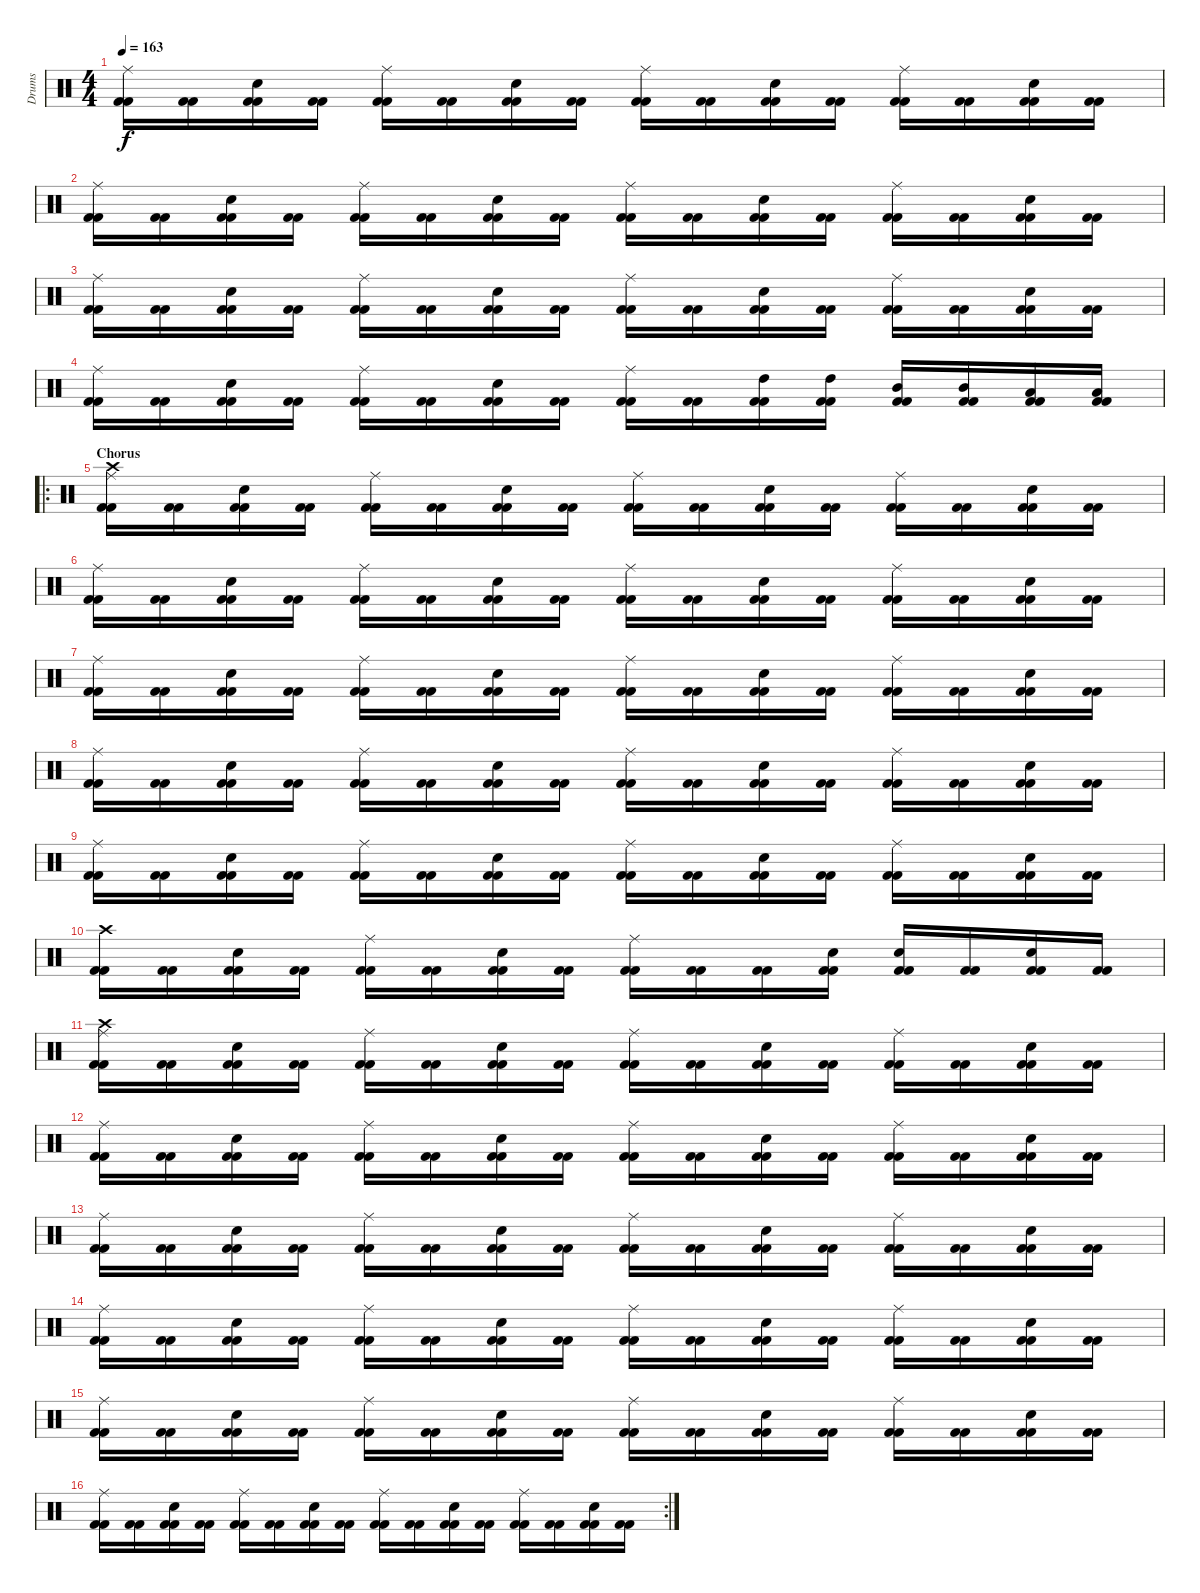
\track ("Drums" "Drums") {instrument percussion}
\staff {score}
\articulation defaults
\ts (4 4)
\tempo 163
\clef neutral
\ks c
("Kick (hit) 2" "Kick (hit) 2" "Ride (middle)").16{dy f} ("Kick (hit) 2" "Kick (hit) 2").16 ("Kick (hit) 2" "Kick (hit) 2" "Snare (hit) 2").16 ("Kick (hit) 2" "Kick (hit) 2").16 ("Kick (hit) 2" "Kick (hit) 2" "Ride (middle)").16 ("Kick (hit) 2" "Kick (hit) 2").16 ("Kick (hit) 2" "Kick (hit) 2" "Snare (hit) 2").16 ("Kick (hit) 2" "Kick (hit) 2").16 ("Kick (hit) 2" "Kick (hit) 2" "Ride (middle)").16 ("Kick (hit) 2" "Kick (hit) 2").16 ("Kick (hit) 2" "Kick (hit) 2" "Snare (hit) 2").16 ("Kick (hit) 2" "Kick (hit) 2").16 ("Kick (hit) 2" "Kick (hit) 2" "Ride (middle)").16 ("Kick (hit) 2" "Kick (hit) 2").16 ("Kick (hit) 2" "Kick (hit) 2" "Snare (hit) 2").16 ("Kick (hit) 2" "Kick (hit) 2").16 |
("Kick (hit) 2" "Kick (hit) 2" "Ride (middle)").16 ("Kick (hit) 2" "Kick (hit) 2").16 ("Kick (hit) 2" "Kick (hit) 2" "Snare (hit) 2").16 ("Kick (hit) 2" "Kick (hit) 2").16 ("Kick (hit) 2" "Kick (hit) 2" "Ride (middle)").16 ("Kick (hit) 2" "Kick (hit) 2").16 ("Kick (hit) 2" "Kick (hit) 2" "Snare (hit) 2").16 ("Kick (hit) 2" "Kick (hit) 2").16 ("Kick (hit) 2" "Kick (hit) 2" "Ride (middle)").16 ("Kick (hit) 2" "Kick (hit) 2").16 ("Kick (hit) 2" "Kick (hit) 2" "Snare (hit) 2").16 ("Kick (hit) 2" "Kick (hit) 2").16 ("Kick (hit) 2" "Kick (hit) 2" "Ride (middle)").16 ("Kick (hit) 2" "Kick (hit) 2").16 ("Kick (hit) 2" "Kick (hit) 2" "Snare (hit) 2").16 ("Kick (hit) 2" "Kick (hit) 2").16 |
("Kick (hit) 2" "Kick (hit) 2" "Ride (middle)").16 ("Kick (hit) 2" "Kick (hit) 2").16 ("Kick (hit) 2" "Kick (hit) 2" "Snare (hit) 2").16 ("Kick (hit) 2" "Kick (hit) 2").16 ("Kick (hit) 2" "Kick (hit) 2" "Ride (middle)").16 ("Kick (hit) 2" "Kick (hit) 2").16 ("Kick (hit) 2" "Kick (hit) 2" "Snare (hit) 2").16 ("Kick (hit) 2" "Kick (hit) 2").16 ("Kick (hit) 2" "Kick (hit) 2" "Ride (middle)").16 ("Kick (hit) 2" "Kick (hit) 2").16 ("Kick (hit) 2" "Kick (hit) 2" "Snare (hit) 2").16 ("Kick (hit) 2" "Kick (hit) 2").16 ("Kick (hit) 2" "Kick (hit) 2" "Ride (middle)").16 ("Kick (hit) 2" "Kick (hit) 2").16 ("Kick (hit) 2" "Kick (hit) 2" "Snare (hit) 2").16 ("Kick (hit) 2" "Kick (hit) 2").16 |
("Kick (hit) 2" "Kick (hit) 2" "Ride (middle)").16 ("Kick (hit) 2" "Kick (hit) 2").16 ("Kick (hit) 2" "Kick (hit) 2" "Snare (hit) 2").16 ("Kick (hit) 2" "Kick (hit) 2").16 ("Kick (hit) 2" "Kick (hit) 2" "Ride (middle)").16 ("Kick (hit) 2" "Kick (hit) 2").16 ("Kick (hit) 2" "Kick (hit) 2" "Snare (hit) 2").16 ("Kick (hit) 2" "Kick (hit) 2").16 ("Kick (hit) 2" "Kick (hit) 2" "Ride (middle)").16 ("Kick (hit) 2" "Kick (hit) 2").16 ("Kick (hit) 2" "Kick (hit) 2" "High Tom (hit)").16 ("Kick (hit) 2" "Kick (hit) 2" "High Tom (hit)").16 ("Kick (hit) 2" "Kick (hit) 2" "Mid Tom (hit)").16 ("Kick (hit) 2" "Kick (hit) 2" "Mid Tom (hit)").16 ("Kick (hit) 2" "Kick (hit) 2" "Low Tom (hit)").16 ("Kick (hit) 2" "Kick (hit) 2" "Low Tom (hit)").16 |
\ro
\section ("" "Chorus")
("Kick (hit) 2" "Kick (hit) 2" "Ride (middle)" "Crash high (hit)").16 ("Kick (hit) 2" "Kick (hit) 2").16 ("Kick (hit) 2" "Kick (hit) 2" "Snare (hit) 2").16 ("Kick (hit) 2" "Kick (hit) 2").16 ("Kick (hit) 2" "Kick (hit) 2" "Ride (middle)").16 ("Kick (hit) 2" "Kick (hit) 2").16 ("Kick (hit) 2" "Kick (hit) 2" "Snare (hit) 2").16 ("Kick (hit) 2" "Kick (hit) 2").16 ("Kick (hit) 2" "Kick (hit) 2" "Ride (middle)").16 ("Kick (hit) 2" "Kick (hit) 2").16 ("Kick (hit) 2" "Kick (hit) 2" "Snare (hit) 2").16 ("Kick (hit) 2" "Kick (hit) 2").16 ("Kick (hit) 2" "Kick (hit) 2" "Ride (middle)").16 ("Kick (hit) 2" "Kick (hit) 2").16 ("Kick (hit) 2" "Kick (hit) 2" "Snare (hit) 2").16 ("Kick (hit) 2" "Kick (hit) 2").16 |
("Kick (hit) 2" "Kick (hit) 2" "Ride (middle)").16 ("Kick (hit) 2" "Kick (hit) 2").16 ("Kick (hit) 2" "Kick (hit) 2" "Snare (hit) 2").16 ("Kick (hit) 2" "Kick (hit) 2").16 ("Kick (hit) 2" "Kick (hit) 2" "Ride (middle)").16 ("Kick (hit) 2" "Kick (hit) 2").16 ("Kick (hit) 2" "Kick (hit) 2" "Snare (hit) 2").16 ("Kick (hit) 2" "Kick (hit) 2").16 ("Kick (hit) 2" "Kick (hit) 2" "Ride (middle)").16 ("Kick (hit) 2" "Kick (hit) 2").16 ("Kick (hit) 2" "Kick (hit) 2" "Snare (hit) 2").16 ("Kick (hit) 2" "Kick (hit) 2").16 ("Kick (hit) 2" "Kick (hit) 2" "Ride (middle)").16 ("Kick (hit) 2" "Kick (hit) 2").16 ("Kick (hit) 2" "Kick (hit) 2" "Snare (hit) 2").16 ("Kick (hit) 2" "Kick (hit) 2").16 |
("Kick (hit) 2" "Kick (hit) 2" "Ride (middle)").16 ("Kick (hit) 2" "Kick (hit) 2").16 ("Kick (hit) 2" "Kick (hit) 2" "Snare (hit) 2").16 ("Kick (hit) 2" "Kick (hit) 2").16 ("Kick (hit) 2" "Kick (hit) 2" "Ride (middle)").16 ("Kick (hit) 2" "Kick (hit) 2").16 ("Kick (hit) 2" "Kick (hit) 2" "Snare (hit) 2").16 ("Kick (hit) 2" "Kick (hit) 2").16 ("Kick (hit) 2" "Kick (hit) 2" "Ride (middle)").16 ("Kick (hit) 2" "Kick (hit) 2").16 ("Kick (hit) 2" "Kick (hit) 2" "Snare (hit) 2").16 ("Kick (hit) 2" "Kick (hit) 2").16 ("Kick (hit) 2" "Kick (hit) 2" "Ride (middle)").16 ("Kick (hit) 2" "Kick (hit) 2").16 ("Kick (hit) 2" "Kick (hit) 2" "Snare (hit) 2").16 ("Kick (hit) 2" "Kick (hit) 2").16 |
("Kick (hit) 2" "Kick (hit) 2" "Ride (middle)").16 ("Kick (hit) 2" "Kick (hit) 2").16 ("Kick (hit) 2" "Kick (hit) 2" "Snare (hit) 2").16 ("Kick (hit) 2" "Kick (hit) 2").16 ("Kick (hit) 2" "Kick (hit) 2" "Ride (middle)").16 ("Kick (hit) 2" "Kick (hit) 2").16 ("Kick (hit) 2" "Kick (hit) 2" "Snare (hit) 2").16 ("Kick (hit) 2" "Kick (hit) 2").16 ("Kick (hit) 2" "Kick (hit) 2" "Ride (middle)").16 ("Kick (hit) 2" "Kick (hit) 2").16 ("Kick (hit) 2" "Kick (hit) 2" "Snare (hit) 2").16 ("Kick (hit) 2" "Kick (hit) 2").16 ("Kick (hit) 2" "Kick (hit) 2" "Ride (middle)").16 ("Kick (hit) 2" "Kick (hit) 2").16 ("Kick (hit) 2" "Kick (hit) 2" "Snare (hit) 2").16 ("Kick (hit) 2" "Kick (hit) 2").16 |
("Kick (hit) 2" "Kick (hit) 2" "Ride (middle)").16 ("Kick (hit) 2" "Kick (hit) 2").16 ("Kick (hit) 2" "Kick (hit) 2" "Snare (hit) 2").16 ("Kick (hit) 2" "Kick (hit) 2").16 ("Kick (hit) 2" "Kick (hit) 2" "Ride (middle)").16 ("Kick (hit) 2" "Kick (hit) 2").16 ("Kick (hit) 2" "Kick (hit) 2" "Snare (hit) 2").16 ("Kick (hit) 2" "Kick (hit) 2").16 ("Kick (hit) 2" "Kick (hit) 2" "Ride (middle)").16 ("Kick (hit) 2" "Kick (hit) 2").16 ("Kick (hit) 2" "Kick (hit) 2" "Snare (hit) 2").16 ("Kick (hit) 2" "Kick (hit) 2").16 ("Kick (hit) 2" "Kick (hit) 2" "Ride (middle)").16 ("Kick (hit) 2" "Kick (hit) 2").16 ("Kick (hit) 2" "Kick (hit) 2" "Snare (hit) 2").16 ("Kick (hit) 2" "Kick (hit) 2").16 |
("Kick (hit) 2" "Kick (hit) 2" "Crash high (hit)").16 ("Kick (hit) 2" "Kick (hit) 2").16 ("Kick (hit) 2" "Kick (hit) 2" "Snare (hit) 2").16 ("Kick (hit) 2" "Kick (hit) 2").16 ("Kick (hit) 2" "Kick (hit) 2" "Ride (middle)").16 ("Kick (hit) 2" "Kick (hit) 2").16 ("Kick (hit) 2" "Kick (hit) 2" "Snare (hit) 2").16 ("Kick (hit) 2" "Kick (hit) 2").16 ("Kick (hit) 2" "Kick (hit) 2" "Ride (middle)").16 ("Kick (hit) 2" "Kick (hit) 2").16 ("Kick (hit) 2" "Kick (hit) 2").16 ("Kick (hit) 2" "Kick (hit) 2" "Snare (hit) 2").16 ("Kick (hit) 2" "Kick (hit) 2" "Snare (hit) 2").16 ("Kick (hit) 2" "Kick (hit) 2").16 ("Kick (hit) 2" "Kick (hit) 2" "Snare (hit) 2").16 ("Kick (hit) 2" "Kick (hit) 2").16 |
("Kick (hit) 2" "Kick (hit) 2" "Ride (middle)" "Crash high (hit)").16 ("Kick (hit) 2" "Kick (hit) 2").16 ("Kick (hit) 2" "Kick (hit) 2" "Snare (hit) 2").16 ("Kick (hit) 2" "Kick (hit) 2").16 ("Kick (hit) 2" "Kick (hit) 2" "Ride (middle)").16 ("Kick (hit) 2" "Kick (hit) 2").16 ("Kick (hit) 2" "Kick (hit) 2" "Snare (hit) 2").16 ("Kick (hit) 2" "Kick (hit) 2").16 ("Kick (hit) 2" "Kick (hit) 2" "Ride (middle)").16 ("Kick (hit) 2" "Kick (hit) 2").16 ("Kick (hit) 2" "Kick (hit) 2" "Snare (hit) 2").16 ("Kick (hit) 2" "Kick (hit) 2").16 ("Kick (hit) 2" "Kick (hit) 2" "Ride (middle)").16 ("Kick (hit) 2" "Kick (hit) 2").16 ("Kick (hit) 2" "Kick (hit) 2" "Snare (hit) 2").16 ("Kick (hit) 2" "Kick (hit) 2").16 |
("Kick (hit) 2" "Kick (hit) 2" "Ride (middle)").16 ("Kick (hit) 2" "Kick (hit) 2").16 ("Kick (hit) 2" "Kick (hit) 2" "Snare (hit) 2").16 ("Kick (hit) 2" "Kick (hit) 2").16 ("Kick (hit) 2" "Kick (hit) 2" "Ride (middle)").16 ("Kick (hit) 2" "Kick (hit) 2").16 ("Kick (hit) 2" "Kick (hit) 2" "Snare (hit) 2").16 ("Kick (hit) 2" "Kick (hit) 2").16 ("Kick (hit) 2" "Kick (hit) 2" "Ride (middle)").16 ("Kick (hit) 2" "Kick (hit) 2").16 ("Kick (hit) 2" "Kick (hit) 2" "Snare (hit) 2").16 ("Kick (hit) 2" "Kick (hit) 2").16 ("Kick (hit) 2" "Kick (hit) 2" "Ride (middle)").16 ("Kick (hit) 2" "Kick (hit) 2").16 ("Kick (hit) 2" "Kick (hit) 2" "Snare (hit) 2").16 ("Kick (hit) 2" "Kick (hit) 2").16 |
("Kick (hit) 2" "Kick (hit) 2" "Ride (middle)").16 ("Kick (hit) 2" "Kick (hit) 2").16 ("Kick (hit) 2" "Kick (hit) 2" "Snare (hit) 2").16 ("Kick (hit) 2" "Kick (hit) 2").16 ("Kick (hit) 2" "Kick (hit) 2" "Ride (middle)").16 ("Kick (hit) 2" "Kick (hit) 2").16 ("Kick (hit) 2" "Kick (hit) 2" "Snare (hit) 2").16 ("Kick (hit) 2" "Kick (hit) 2").16 ("Kick (hit) 2" "Kick (hit) 2" "Ride (middle)").16 ("Kick (hit) 2" "Kick (hit) 2").16 ("Kick (hit) 2" "Kick (hit) 2" "Snare (hit) 2").16 ("Kick (hit) 2" "Kick (hit) 2").16 ("Kick (hit) 2" "Kick (hit) 2" "Ride (middle)").16 ("Kick (hit) 2" "Kick (hit) 2").16 ("Kick (hit) 2" "Kick (hit) 2" "Snare (hit) 2").16 ("Kick (hit) 2" "Kick (hit) 2").16 |
("Kick (hit) 2" "Kick (hit) 2" "Ride (middle)").16 ("Kick (hit) 2" "Kick (hit) 2").16 ("Kick (hit) 2" "Kick (hit) 2" "Snare (hit) 2").16 ("Kick (hit) 2" "Kick (hit) 2").16 ("Kick (hit) 2" "Kick (hit) 2" "Ride (middle)").16 ("Kick (hit) 2" "Kick (hit) 2").16 ("Kick (hit) 2" "Kick (hit) 2" "Snare (hit) 2").16 ("Kick (hit) 2" "Kick (hit) 2").16 ("Kick (hit) 2" "Kick (hit) 2" "Ride (middle)").16 ("Kick (hit) 2" "Kick (hit) 2").16 ("Kick (hit) 2" "Kick (hit) 2" "Snare (hit) 2").16 ("Kick (hit) 2" "Kick (hit) 2").16 ("Kick (hit) 2" "Kick (hit) 2" "Ride (middle)").16 ("Kick (hit) 2" "Kick (hit) 2").16 ("Kick (hit) 2" "Kick (hit) 2" "Snare (hit) 2").16 ("Kick (hit) 2" "Kick (hit) 2").16 |
("Kick (hit) 2" "Kick (hit) 2" "Ride (middle)").16 ("Kick (hit) 2" "Kick (hit) 2").16 ("Kick (hit) 2" "Kick (hit) 2" "Snare (hit) 2").16 ("Kick (hit) 2" "Kick (hit) 2").16 ("Kick (hit) 2" "Kick (hit) 2" "Ride (middle)").16 ("Kick (hit) 2" "Kick (hit) 2").16 ("Kick (hit) 2" "Kick (hit) 2" "Snare (hit) 2").16 ("Kick (hit) 2" "Kick (hit) 2").16 ("Kick (hit) 2" "Kick (hit) 2" "Ride (middle)").16 ("Kick (hit) 2" "Kick (hit) 2").16 ("Kick (hit) 2" "Kick (hit) 2" "Snare (hit) 2").16 ("Kick (hit) 2" "Kick (hit) 2").16 ("Kick (hit) 2" "Kick (hit) 2" "Ride (middle)").16 ("Kick (hit) 2" "Kick (hit) 2").16 ("Kick (hit) 2" "Kick (hit) 2" "Snare (hit) 2").16 ("Kick (hit) 2" "Kick (hit) 2").16 |
\rc 2
("Kick (hit) 2" "Kick (hit) 2" "Ride (middle)").16 ("Kick (hit) 2" "Kick (hit) 2").16 ("Kick (hit) 2" "Kick (hit) 2" "Snare (hit) 2").16 ("Kick (hit) 2" "Kick (hit) 2").16 ("Kick (hit) 2" "Kick (hit) 2" "Ride (middle)").16 ("Kick (hit) 2" "Kick (hit) 2").16 ("Kick (hit) 2" "Kick (hit) 2" "Snare (hit) 2").16 ("Kick (hit) 2" "Kick (hit) 2").16 ("Kick (hit) 2" "Kick (hit) 2" "Ride (middle)").16 ("Kick (hit) 2" "Kick (hit) 2").16 ("Kick (hit) 2" "Kick (hit) 2" "Snare (hit) 2").16 ("Kick (hit) 2" "Kick (hit) 2").16 ("Kick (hit) 2" "Kick (hit) 2" "Ride (middle)").16 ("Kick (hit) 2" "Kick (hit) 2").16 ("Kick (hit) 2" "Kick (hit) 2" "Snare (hit) 2").16 ("Kick (hit) 2" "Kick (hit) 2").16
